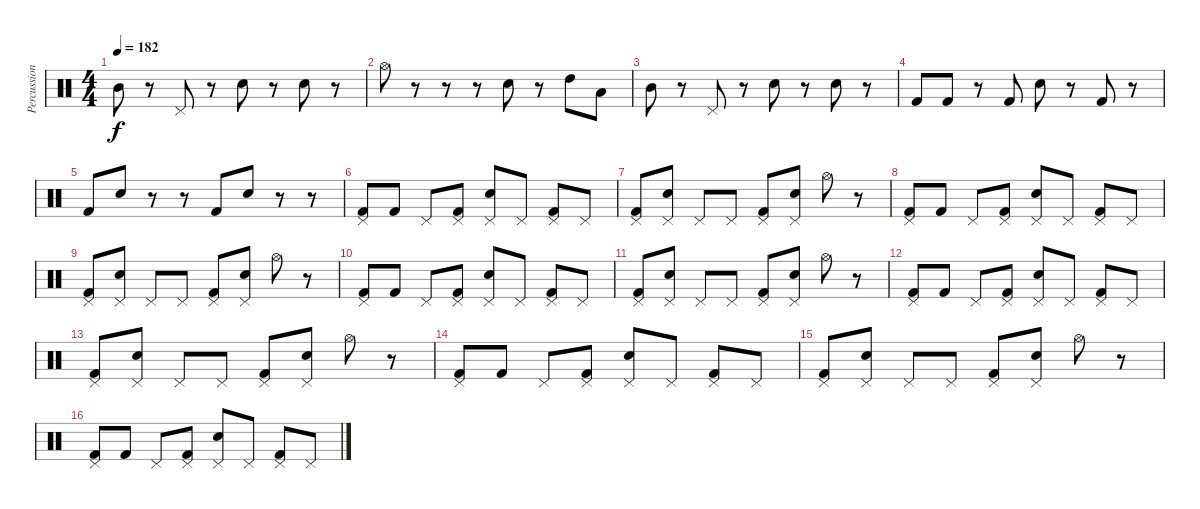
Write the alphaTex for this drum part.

\track ("Percussion" "Percussion") {instrument percussion}
\staff {score}
\articulation defaults
\ts (4 4)
\tempo 182
\clef neutral
\ks c "Mid Tom (hit)".8{dy f}
r.8 "Pedal Hi-Hat (hit)".8 r.8 "Snare (hit) 2".8 r.8 "Snare (hit) 2".8 r.8 |
"Hi-Hat (open)".8 r.8 r.8 r.8 "Snare (hit) 2".8 r.8 "High Tom (hit)".8 "Low Tom (hit)".8 |
"Mid Tom (hit)".8 r.8 "Pedal Hi-Hat (hit)".8 r.8 "Snare (hit) 2".8 r.8 "Snare (hit) 2".8 r.8 |
"Kick (hit) 2".8 "Kick (hit) 2".8 r.8 "Kick (hit) 2".8 "Snare (hit) 2".8 r.8 "Kick (hit) 2".8 r.8 |
"Kick (hit) 2".8 "Snare (hit) 2".8 r.8 r.8 "Kick (hit) 2".8 "Snare (hit) 2".8 r.8 r.8 |
("Pedal Hi-Hat (hit)" "Kick (hit) 2").8 "Kick (hit) 2".8 "Pedal Hi-Hat (hit)".8 ("Pedal Hi-Hat (hit)" "Kick (hit) 2").8 ("Pedal Hi-Hat (hit)" "Snare (hit) 2").8 "Pedal Hi-Hat (hit)".8 ("Pedal Hi-Hat (hit)" "Kick (hit) 2").8 "Pedal Hi-Hat (hit)".8 |
("Pedal Hi-Hat (hit)" "Kick (hit) 2").8 ("Pedal Hi-Hat (hit)" "Snare (hit) 2").8 "Pedal Hi-Hat (hit)".8 "Pedal Hi-Hat (hit)".8 ("Pedal Hi-Hat (hit)" "Kick (hit) 2").8 ("Pedal Hi-Hat (hit)" "Snare (hit) 2").8 "Hi-Hat (open)".8 r.8 |
("Pedal Hi-Hat (hit)" "Kick (hit) 2").8 "Kick (hit) 2".8 "Pedal Hi-Hat (hit)".8 ("Pedal Hi-Hat (hit)" "Kick (hit) 2").8 ("Pedal Hi-Hat (hit)" "Snare (hit) 2").8 "Pedal Hi-Hat (hit)".8 ("Pedal Hi-Hat (hit)" "Kick (hit) 2").8 "Pedal Hi-Hat (hit)".8 |
("Pedal Hi-Hat (hit)" "Kick (hit) 2").8 ("Pedal Hi-Hat (hit)" "Snare (hit) 2").8 "Pedal Hi-Hat (hit)".8 "Pedal Hi-Hat (hit)".8 ("Pedal Hi-Hat (hit)" "Kick (hit) 2").8 ("Pedal Hi-Hat (hit)" "Snare (hit) 2").8 "Hi-Hat (open)".8 r.8 |
("Pedal Hi-Hat (hit)" "Kick (hit) 2").8 "Kick (hit) 2".8 "Pedal Hi-Hat (hit)".8 ("Pedal Hi-Hat (hit)" "Kick (hit) 2").8 ("Pedal Hi-Hat (hit)" "Snare (hit) 2").8 "Pedal Hi-Hat (hit)".8 ("Pedal Hi-Hat (hit)" "Kick (hit) 2").8 "Pedal Hi-Hat (hit)".8 |
("Pedal Hi-Hat (hit)" "Kick (hit) 2").8 ("Pedal Hi-Hat (hit)" "Snare (hit) 2").8 "Pedal Hi-Hat (hit)".8 "Pedal Hi-Hat (hit)".8 ("Pedal Hi-Hat (hit)" "Kick (hit) 2").8 ("Pedal Hi-Hat (hit)" "Snare (hit) 2").8 "Hi-Hat (open)".8 r.8 |
("Pedal Hi-Hat (hit)" "Kick (hit) 2").8 "Kick (hit) 2".8 "Pedal Hi-Hat (hit)".8 ("Pedal Hi-Hat (hit)" "Kick (hit) 2").8 ("Pedal Hi-Hat (hit)" "Snare (hit) 2").8 "Pedal Hi-Hat (hit)".8 ("Pedal Hi-Hat (hit)" "Kick (hit) 2").8 "Pedal Hi-Hat (hit)".8 |
("Pedal Hi-Hat (hit)" "Kick (hit) 2").8 ("Pedal Hi-Hat (hit)" "Snare (hit) 2").8 "Pedal Hi-Hat (hit)".8 "Pedal Hi-Hat (hit)".8 ("Pedal Hi-Hat (hit)" "Kick (hit) 2").8 ("Pedal Hi-Hat (hit)" "Snare (hit) 2").8 "Hi-Hat (open)".8 r.8 |
("Pedal Hi-Hat (hit)" "Kick (hit) 2").8 "Kick (hit) 2".8 "Pedal Hi-Hat (hit)".8 ("Pedal Hi-Hat (hit)" "Kick (hit) 2").8 ("Pedal Hi-Hat (hit)" "Snare (hit) 2").8 "Pedal Hi-Hat (hit)".8 ("Pedal Hi-Hat (hit)" "Kick (hit) 2").8 "Pedal Hi-Hat (hit)".8 |
("Pedal Hi-Hat (hit)" "Kick (hit) 2").8 ("Pedal Hi-Hat (hit)" "Snare (hit) 2").8 "Pedal Hi-Hat (hit)".8 "Pedal Hi-Hat (hit)".8 ("Pedal Hi-Hat (hit)" "Kick (hit) 2").8 ("Pedal Hi-Hat (hit)" "Snare (hit) 2").8 "Hi-Hat (open)".8 r.8 |
("Pedal Hi-Hat (hit)" "Kick (hit) 2").8 "Kick (hit) 2".8 "Pedal Hi-Hat (hit)".8 ("Pedal Hi-Hat (hit)" "Kick (hit) 2").8 ("Pedal Hi-Hat (hit)" "Snare (hit) 2").8 "Pedal Hi-Hat (hit)".8 ("Pedal Hi-Hat (hit)" "Kick (hit) 2").8 "Pedal Hi-Hat (hit)".8
